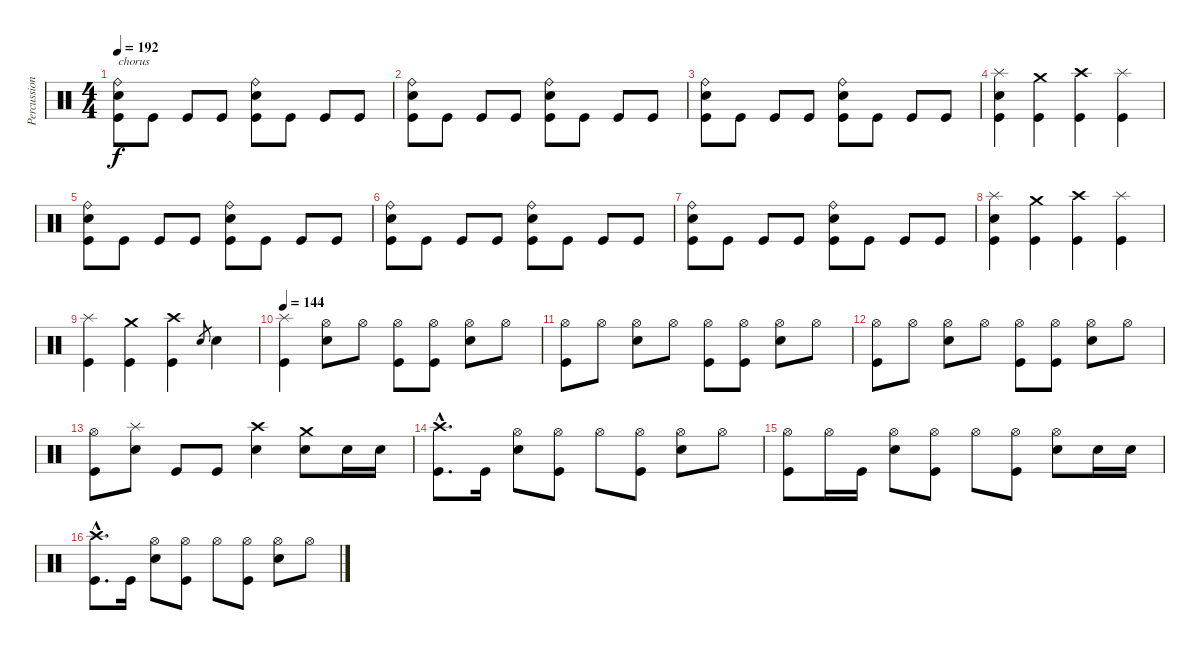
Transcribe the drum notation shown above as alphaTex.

\track ("Percussions" "Percussion") {instrument percussion}
\staff {score}
\articulation defaults
\ts (4 4)
\tempo 192
\clef neutral
\ks c
("Kick (hit)" "Electric Snare (hit)" "Ride (bell)").8{txt "chorus" dy f} "Kick (hit)".8 "Kick (hit)".8 "Kick (hit)".8 ("Kick (hit)" "Electric Snare (hit)" "Ride (bell)").8 "Kick (hit)".8 "Kick (hit)".8 "Kick (hit)".8 |
("Kick (hit)" "Electric Snare (hit)" "Ride (bell)").8 "Kick (hit)".8 "Kick (hit)".8 "Kick (hit)".8 ("Kick (hit)" "Electric Snare (hit)" "Ride (bell)").8 "Kick (hit)".8 "Kick (hit)".8 "Kick (hit)".8 |
("Kick (hit)" "Electric Snare (hit)" "Ride (bell)").8 "Kick (hit)".8 "Kick (hit)".8 "Kick (hit)".8 ("Kick (hit)" "Electric Snare (hit)" "Ride (bell)").8 "Kick (hit)".8 "Kick (hit)".8 "Kick (hit)".8 |
("Kick (hit)" "Electric Snare (hit)" "Splash (hit)").4 ("Kick (hit)" "Crash medium (hit)").4 ("Kick (hit)" "Crash high (hit)").4 ("Kick (hit)" "Splash (hit)").4 |
("Kick (hit)" "Electric Snare (hit)" "Ride (bell)").8 "Kick (hit)".8 "Kick (hit)".8 "Kick (hit)".8 ("Kick (hit)" "Electric Snare (hit)" "Ride (bell)").8 "Kick (hit)".8 "Kick (hit)".8 "Kick (hit)".8 |
("Kick (hit)" "Electric Snare (hit)" "Ride (bell)").8 "Kick (hit)".8 "Kick (hit)".8 "Kick (hit)".8 ("Kick (hit)" "Electric Snare (hit)" "Ride (bell)").8 "Kick (hit)".8 "Kick (hit)".8 "Kick (hit)".8 |
("Kick (hit)" "Electric Snare (hit)" "Ride (bell)").8 "Kick (hit)".8 "Kick (hit)".8 "Kick (hit)".8 ("Kick (hit)" "Electric Snare (hit)" "Ride (bell)").8 "Kick (hit)".8 "Kick (hit)".8 "Kick (hit)".8 |
("Kick (hit)" "Electric Snare (hit)" "Splash (hit)").4 ("Kick (hit)" "Crash medium (hit)").4 ("Kick (hit)" "Crash high (hit)").4 ("Kick (hit)" "Splash (hit)").4 |
("Kick (hit)" "Splash (hit)").4 ("Kick (hit)" "Crash medium (hit)").4 ("Kick (hit)" "Crash high (hit)").4 "Electric Snare (hit)".8{gr} "Electric Snare (hit)".4 |
\tempo 144
("Kick (hit)" "Splash (hit)").4 ("Electric Snare (hit)" "Hi-Hat (open)").8 "Hi-Hat (open)".8 ("Kick (hit)" "Hi-Hat (open)").8 ("Kick (hit)" "Hi-Hat (open)").8 ("Electric Snare (hit)" "Hi-Hat (open)").8 "Hi-Hat (open)".8 |
("Kick (hit)" "Hi-Hat (open)").8 "Hi-Hat (open)".8 ("Electric Snare (hit)" "Hi-Hat (open)").8 "Hi-Hat (open)".8 ("Kick (hit)" "Hi-Hat (open)").8 ("Kick (hit)" "Hi-Hat (open)").8 ("Electric Snare (hit)" "Hi-Hat (open)").8 "Hi-Hat (open)".8 |
("Kick (hit)" "Hi-Hat (open)").8 "Hi-Hat (open)".8 ("Electric Snare (hit)" "Hi-Hat (open)").8 "Hi-Hat (open)".8 ("Kick (hit)" "Hi-Hat (open)").8 ("Kick (hit)" "Hi-Hat (open)").8 ("Electric Snare (hit)" "Hi-Hat (open)").8 "Hi-Hat (open)".8 |
("Kick (hit)" "Hi-Hat (open)").8 ("Electric Snare (hit)" "Splash (hit)").8 "Kick (hit)".8 "Kick (hit)".8 ("Electric Snare (hit)" "Crash high (hit)").4 ("Electric Snare (hit)" "Crash medium (hit)").8 "Electric Snare (hit)".16 "Electric Snare (hit)".16 |
("Kick (hit)"{hac} "Crash high (hit)"{hac}).8{d} "Kick (hit)".16 ("Electric Snare (hit)" "Hi-Hat (open)").8 ("Kick (hit)" "Hi-Hat (open)").8 "Hi-Hat (open)".8 ("Kick (hit)" "Hi-Hat (open)").8 ("Electric Snare (hit)" "Hi-Hat (open)").8 "Hi-Hat (open)".8 |
("Kick (hit)" "Hi-Hat (open)").8 "Hi-Hat (open)".16 "Kick (hit)".16 ("Electric Snare (hit)" "Hi-Hat (open)").8 ("Kick (hit)" "Hi-Hat (open)").8 "Hi-Hat (open)".8 ("Kick (hit)" "Hi-Hat (open)").8 ("Electric Snare (hit)" "Hi-Hat (open)").8 "Electric Snare (hit)".16 "Electric Snare (hit)".16 |
("Kick (hit)"{hac} "Crash high (hit)"{hac}).8{d} "Kick (hit)".16 ("Electric Snare (hit)" "Hi-Hat (open)").8 ("Kick (hit)" "Hi-Hat (open)").8 "Hi-Hat (open)".8 ("Kick (hit)" "Hi-Hat (open)").8 ("Electric Snare (hit)" "Hi-Hat (open)").8 "Hi-Hat (open)".8
